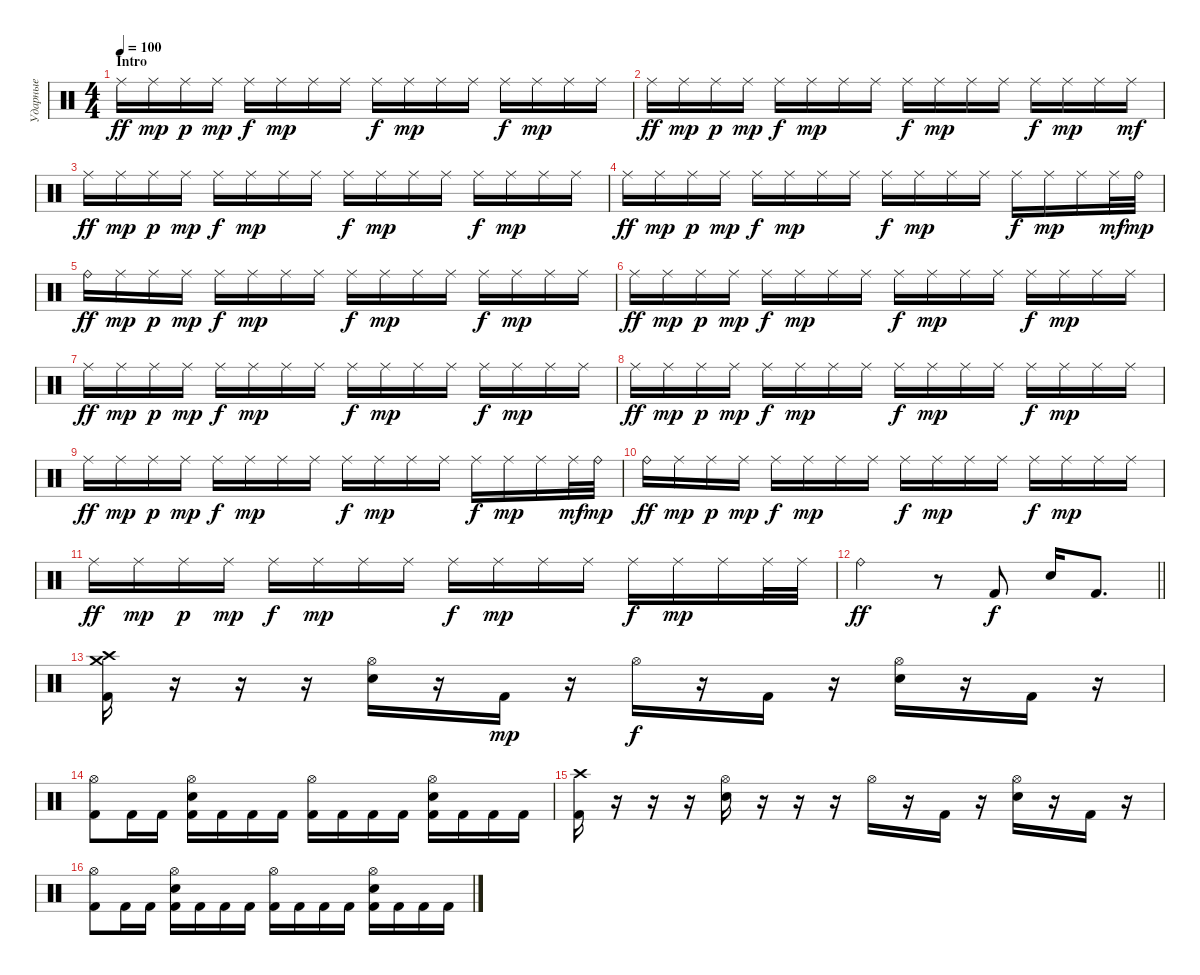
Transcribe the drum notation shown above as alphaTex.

\track ("Ударные" "Ударные") {instrument percussion}
\staff {score}
\articulation defaults
\ts (4 4)
\section ("" "Intro")
\tempo 100
\clef neutral
\ks c "Ride (middle)".16{dy ff} "Ride (middle)".16{dy mp} "Ride (middle)".16{dy p} "Ride (middle)".16{dy mp} "Ride (middle)".16{dy f} "Ride (middle)".16{dy mp} "Ride (middle)".16 "Ride (middle)".16 "Ride (middle)".16{dy f} "Ride (middle)".16{dy mp} "Ride (middle)".16 "Ride (middle)".16 "Ride (middle)".16{dy f} "Ride (middle)".16{dy mp} "Ride (middle)".16 "Ride (middle)".16
|
"Ride (middle)".16{dy ff} "Ride (middle)".16{dy mp} "Ride (middle)".16{dy p} "Ride (middle)".16{dy mp} "Ride (middle)".16{dy f} "Ride (middle)".16{dy mp} "Ride (middle)".16 "Ride (middle)".16 "Ride (middle)".16{dy f} "Ride (middle)".16{dy mp} "Ride (middle)".16 "Ride (middle)".16 "Ride (middle)".16{dy f} "Ride (middle)".16{dy mp} "Ride (middle)".16 "Ride (middle)".16{dy mf} |
"Ride (middle)".16{dy ff} "Ride (middle)".16{dy mp} "Ride (middle)".16{dy p} "Ride (middle)".16{dy mp} "Ride (middle)".16{dy f} "Ride (middle)".16{dy mp} "Ride (middle)".16 "Ride (middle)".16 "Ride (middle)".16{dy f} "Ride (middle)".16{dy mp} "Ride (middle)".16 "Ride (middle)".16 "Ride (middle)".16{dy f} "Ride (middle)".16{dy mp} "Ride (middle)".16 "Ride (middle)".16 |
"Ride (middle)".16{dy ff} "Ride (middle)".16{dy mp} "Ride (middle)".16{dy p} "Ride (middle)".16{dy mp} "Ride (middle)".16{dy f} "Ride (middle)".16{dy mp} "Ride (middle)".16 "Ride (middle)".16 "Ride (middle)".16{dy f} "Ride (middle)".16{dy mp} "Ride (middle)".16 "Ride (middle)".16 "Ride (middle)".16{dy f} "Ride (middle)".16{dy mp} "Ride (middle)".16 "Ride (middle)".32{dy mf} "Ride (bell)".32{dy mp} |
"Ride (bell)".16{dy ff} "Ride (middle)".16{dy mp} "Ride (middle)".16{dy p} "Ride (middle)".16{dy mp} "Ride (middle)".16{dy f} "Ride (middle)".16{dy mp} "Ride (middle)".16 "Ride (middle)".16 "Ride (middle)".16{dy f} "Ride (middle)".16{dy mp} "Ride (middle)".16 "Ride (middle)".16 "Ride (middle)".16{dy f} "Ride (middle)".16{dy mp} "Ride (middle)".16 "Ride (middle)".16 |
"Ride (middle)".16{dy ff} "Ride (middle)".16{dy mp} "Ride (middle)".16{dy p} "Ride (middle)".16{dy mp} "Ride (middle)".16{dy f} "Ride (middle)".16{dy mp} "Ride (middle)".16 "Ride (middle)".16 "Ride (middle)".16{dy f} "Ride (middle)".16{dy mp} "Ride (middle)".16 "Ride (middle)".16 "Ride (middle)".16{dy f} "Ride (middle)".16{dy mp} "Ride (middle)".16 "Ride (middle)".16 |
"Ride (middle)".16{dy ff} "Ride (middle)".16{dy mp} "Ride (middle)".16{dy p} "Ride (middle)".16{dy mp} "Ride (middle)".16{dy f} "Ride (middle)".16{dy mp} "Ride (middle)".16 "Ride (middle)".16 "Ride (middle)".16{dy f} "Ride (middle)".16{dy mp} "Ride (middle)".16 "Ride (middle)".16 "Ride (middle)".16{dy f} "Ride (middle)".16{dy mp} "Ride (middle)".16 "Ride (middle)".16 |
"Ride (middle)".16{dy ff} "Ride (middle)".16{dy mp} "Ride (middle)".16{dy p} "Ride (middle)".16{dy mp} "Ride (middle)".16{dy f} "Ride (middle)".16{dy mp} "Ride (middle)".16 "Ride (middle)".16 "Ride (middle)".16{dy f} "Ride (middle)".16{dy mp} "Ride (middle)".16 "Ride (middle)".16 "Ride (middle)".16{dy f} "Ride (middle)".16{dy mp} "Ride (middle)".16 "Ride (middle)".16 |
"Ride (middle)".16{dy ff} "Ride (middle)".16{dy mp} "Ride (middle)".16{dy p} "Ride (middle)".16{dy mp} "Ride (middle)".16{dy f} "Ride (middle)".16{dy mp} "Ride (middle)".16 "Ride (middle)".16 "Ride (middle)".16{dy f} "Ride (middle)".16{dy mp} "Ride (middle)".16 "Ride (middle)".16 "Ride (middle)".16{dy f} "Ride (middle)".16{dy mp} "Ride (middle)".16 "Ride (middle)".32{dy mf} "Ride (bell)".32{dy mp} |
"Ride (bell)".16{dy ff} "Ride (middle)".16{dy mp} "Ride (middle)".16{dy p} "Ride (middle)".16{dy mp} "Ride (middle)".16{dy f} "Ride (middle)".16{dy mp} "Ride (middle)".16 "Ride (middle)".16 "Ride (middle)".16{dy f} "Ride (middle)".16{dy mp} "Ride (middle)".16 "Ride (middle)".16 "Ride (middle)".16{dy f} "Ride (middle)".16{dy mp} "Ride (middle)".16 "Ride (middle)".16 |
"Ride (middle)".16{dy ff} "Ride (middle)".16{dy mp} "Ride (middle)".16{dy p} "Ride (middle)".16{dy mp} "Ride (middle)".16{dy f} "Ride (middle)".16{dy mp} "Ride (middle)".16 "Ride (middle)".16 "Ride (middle)".16{dy f} "Ride (middle)".16{dy mp} "Ride (middle)".16 "Ride (middle)".16 "Ride (middle)".16{dy f} "Ride (middle)".16{dy mp} "Ride (middle)".16 "Ride (middle)".32 "Ride (middle)".32 |
\barLineRight lightlight "Ride (bell)".2{dy ff}
r.8 "Kick (hit) 2".8{dy f} "Electric Snare (hit)".16 "Kick (hit) 2".8{d} |
\section ("" "")
("Crash medium (hit)" "Crash high (hit)" "Kick (hit) 2").16 r.16 r.16 r.16 ("Hi-Hat (open)" "Electric Snare (hit)").16 r.16 "Kick (hit) 2".16{dy mp} r.16 "Hi-Hat (open)".16{dy f} r.16 "Kick (hit) 2".16 r.16 ("Hi-Hat (open)" "Electric Snare (hit)").16 r.16 "Kick (hit) 2".16 r.16 |
("Hi-Hat (open)" "Kick (hit) 2").8 "Kick (hit) 2".16 "Kick (hit) 2".16 ("Hi-Hat (open)" "Electric Snare (hit)" "Kick (hit) 2").16 "Kick (hit) 2".16 "Kick (hit) 2".16 "Kick (hit) 2".16 ("Hi-Hat (open)" "Kick (hit) 2").16 "Kick (hit) 2".16 "Kick (hit) 2".16 "Kick (hit) 2".16 ("Hi-Hat (open)" "Electric Snare (hit)" "Kick (hit) 2").16 "Kick (hit) 2".16 "Kick (hit) 2".16 "Kick (hit) 2".16 |
("Crash high (hit)" "Kick (hit) 2").16 r.16 r.16 r.16 ("Hi-Hat (open)" "Electric Snare (hit)").16 r.16 r.16 r.16 "Hi-Hat (open)".16 r.16 "Kick (hit) 2".16 r.16 ("Hi-Hat (open)" "Electric Snare (hit)").16 r.16 "Kick (hit) 2".16 r.16 |
("Hi-Hat (open)" "Kick (hit) 2").8 "Kick (hit) 2".16 "Kick (hit) 2".16 ("Hi-Hat (open)" "Electric Snare (hit)" "Kick (hit) 2").16 "Kick (hit) 2".16 "Kick (hit) 2".16 "Kick (hit) 2".16 ("Hi-Hat (open)" "Kick (hit) 2").16 "Kick (hit) 2".16 "Kick (hit) 2".16 "Kick (hit) 2".16 ("Hi-Hat (open)" "Electric Snare (hit)" "Kick (hit) 2").16 "Kick (hit) 2".16 "Kick (hit) 2".16 "Kick (hit) 2".16
